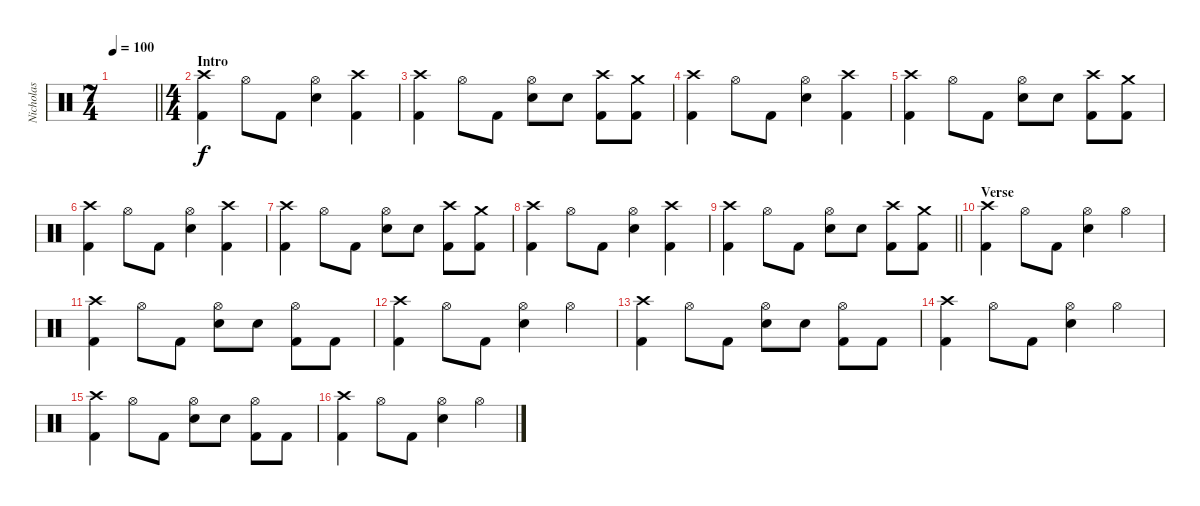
\track ("Nicholas" "Nicholas") {instrument percussion}
\staff {score}
\articulation defaults
\ts (7 4)
\tempo 100
\clef neutral
\barLineRight lightlight
\ks c
|
\ts (4 4)
\section ("" "Intro")
("Crash high (hit)" "Kick (hit) 2").4 "Hi-Hat (open)".8 "Kick (hit) 2".8 ("Hi-Hat (open)" "Snare (hit) 2").4 ("Crash high (hit)" "Kick (hit) 2").4 |
("Crash high (hit)" "Kick (hit) 2").4 "Hi-Hat (open)".8 "Kick (hit) 2".8 ("Hi-Hat (open)" "Snare (hit) 2").8 "Snare (hit) 2".8 ("Crash high (hit)" "Kick (hit) 2").8 ("Crash medium (hit)" "Kick (hit) 2").8 |
("Crash high (hit)" "Kick (hit) 2").4 "Hi-Hat (open)".8 "Kick (hit) 2".8 ("Hi-Hat (open)" "Snare (hit) 2").4 ("Crash high (hit)" "Kick (hit) 2").4 |
("Crash high (hit)" "Kick (hit) 2").4 "Hi-Hat (open)".8 "Kick (hit) 2".8 ("Hi-Hat (open)" "Snare (hit) 2").8 "Snare (hit) 2".8 ("Crash high (hit)" "Kick (hit) 2").8 ("Crash medium (hit)" "Kick (hit) 2").8 |
("Crash high (hit)" "Kick (hit) 2").4 "Hi-Hat (open)".8 "Kick (hit) 2".8 ("Hi-Hat (open)" "Snare (hit) 2").4 ("Crash high (hit)" "Kick (hit) 2").4 |
("Crash high (hit)" "Kick (hit) 2").4 "Hi-Hat (open)".8 "Kick (hit) 2".8 ("Hi-Hat (open)" "Snare (hit) 2").8 "Snare (hit) 2".8 ("Crash high (hit)" "Kick (hit) 2").8 ("Crash medium (hit)" "Kick (hit) 2").8 |
("Crash high (hit)" "Kick (hit) 2").4 "Hi-Hat (open)".8 "Kick (hit) 2".8 ("Hi-Hat (open)" "Snare (hit) 2").4 ("Crash high (hit)" "Kick (hit) 2").4 |
\barLineRight lightlight
("Crash high (hit)" "Kick (hit) 2").4 "Hi-Hat (open)".8 "Kick (hit) 2".8 ("Hi-Hat (open)" "Snare (hit) 2").8 "Snare (hit) 2".8 ("Crash high (hit)" "Kick (hit) 2").8 ("Crash medium (hit)" "Kick (hit) 2").8 |
\section ("" "Verse")
("Crash high (hit)" "Kick (hit) 2").4 "Hi-Hat (open)".8 "Kick (hit) 2".8 ("Hi-Hat (open)" "Snare (hit) 2").4 "Hi-Hat (open)".4 |
("Crash high (hit)" "Kick (hit) 2").4 "Hi-Hat (open)".8 "Kick (hit) 2".8 ("Hi-Hat (open)" "Snare (hit) 2").8 "Snare (hit) 2".8 ("Hi-Hat (open)" "Kick (hit) 2").8 "Kick (hit) 2".8 |
("Crash high (hit)" "Kick (hit) 2").4 "Hi-Hat (open)".8 "Kick (hit) 2".8 ("Hi-Hat (open)" "Snare (hit) 2").4 "Hi-Hat (open)".4 |
("Crash high (hit)" "Kick (hit) 2").4 "Hi-Hat (open)".8 "Kick (hit) 2".8 ("Hi-Hat (open)" "Snare (hit) 2").8 "Snare (hit) 2".8 ("Hi-Hat (open)" "Kick (hit) 2").8 "Kick (hit) 2".8 |
("Crash high (hit)" "Kick (hit) 2").4 "Hi-Hat (open)".8 "Kick (hit) 2".8 ("Hi-Hat (open)" "Snare (hit) 2").4 "Hi-Hat (open)".4 |
("Crash high (hit)" "Kick (hit) 2").4 "Hi-Hat (open)".8 "Kick (hit) 2".8 ("Hi-Hat (open)" "Snare (hit) 2").8 "Snare (hit) 2".8 ("Hi-Hat (open)" "Kick (hit) 2").8 "Kick (hit) 2".8 |
("Crash high (hit)" "Kick (hit) 2").4 "Hi-Hat (open)".8 "Kick (hit) 2".8 ("Hi-Hat (open)" "Snare (hit) 2").4 "Hi-Hat (open)".4
